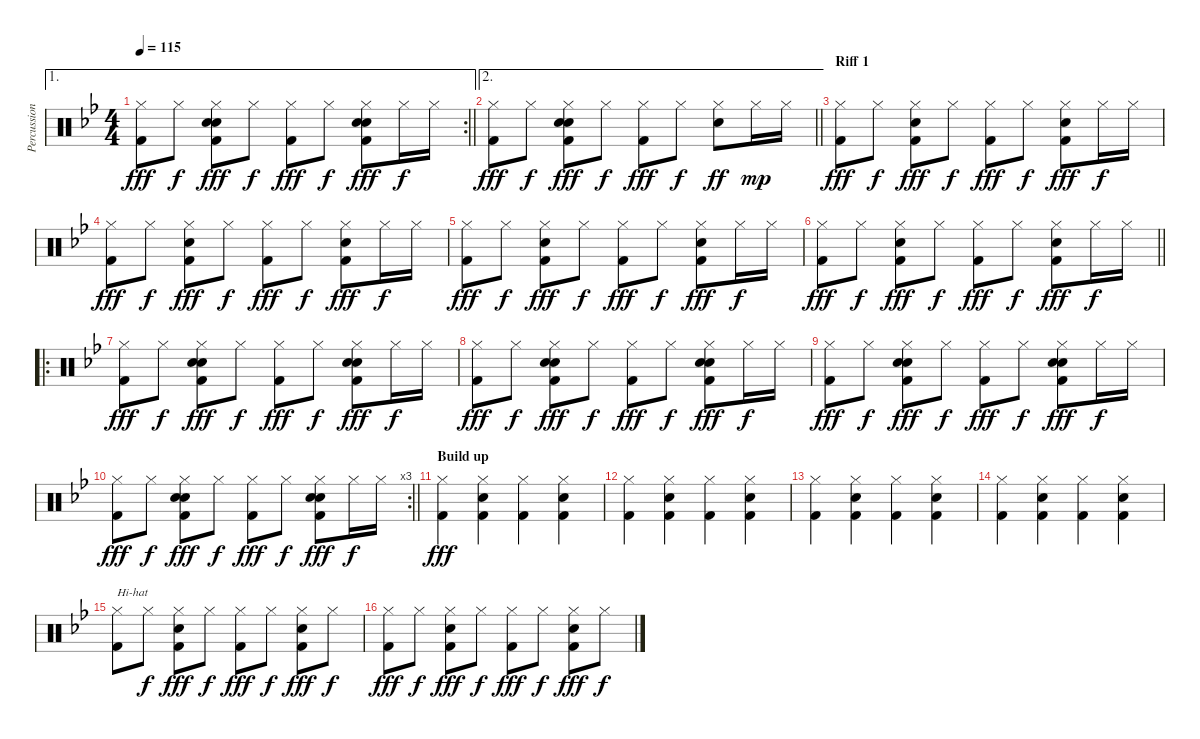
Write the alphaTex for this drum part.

\track ("Percussions" "Percussion") {instrument percussion}
\staff {score}
\articulation defaults
\ae 1
\rc 2
\ts (4 4)
\tempo 115
\clef neutral
\barLineRight lightlight
\ks gminor
("Hi-Hat (closed)" "Kick (hit) 2").8{dy fff} "Hi-Hat (closed)".8{dy f} ("Hi-Hat (closed)" "Hand Clap (hit)" "Electric Snare (hit)" "Kick (hit) 2").8{dy fff} "Hi-Hat (closed)".8{dy f} ("Hi-Hat (closed)" "Kick (hit) 2").8{dy fff} "Hi-Hat (closed)".8{dy f} ("Hi-Hat (closed)" "Hand Clap (hit)" "Electric Snare (hit)" "Kick (hit) 2").8{dy fff} "Hi-Hat (closed)".16{dy f} "Hi-Hat (closed)".16 |
\ae 2
\barLineRight lightlight
("Hi-Hat (closed)" "Kick (hit) 2").8{dy fff} "Hi-Hat (closed)".8{dy f} ("Hi-Hat (closed)" "Hand Clap (hit)" "Electric Snare (hit)" "Kick (hit) 2").8{dy fff} "Hi-Hat (closed)".8{dy f} ("Hi-Hat (closed)" "Kick (hit) 2").8{dy fff} "Hi-Hat (closed)".8{dy f} ("Hi-Hat (closed)" "Hand Clap (hit)").8{dy ff} "Hi-Hat (closed)".16{dy mp} "Hi-Hat (closed)".16 |
\section ("" "Riff 1")
("Hi-Hat (closed)" "Kick (hit) 2").8{dy fff} "Hi-Hat (closed)".8{dy f} ("Hi-Hat (closed)" "Hand Clap (hit)" "Kick (hit) 2").8{dy fff} "Hi-Hat (closed)".8{dy f} ("Hi-Hat (closed)" "Kick (hit) 2").8{dy fff} "Hi-Hat (closed)".8{dy f} ("Hi-Hat (closed)" "Hand Clap (hit)" "Kick (hit) 2").8{dy fff} "Hi-Hat (closed)".16{dy f} "Hi-Hat (closed)".16 |
("Hi-Hat (closed)" "Kick (hit) 2").8{dy fff} "Hi-Hat (closed)".8{dy f} ("Hi-Hat (closed)" "Hand Clap (hit)" "Kick (hit) 2").8{dy fff} "Hi-Hat (closed)".8{dy f} ("Hi-Hat (closed)" "Kick (hit) 2").8{dy fff} "Hi-Hat (closed)".8{dy f} ("Hi-Hat (closed)" "Hand Clap (hit)" "Kick (hit) 2").8{dy fff} "Hi-Hat (closed)".16{dy f} "Hi-Hat (closed)".16 |
("Hi-Hat (closed)" "Kick (hit) 2").8{dy fff} "Hi-Hat (closed)".8{dy f} ("Hi-Hat (closed)" "Hand Clap (hit)" "Kick (hit) 2").8{dy fff} "Hi-Hat (closed)".8{dy f} ("Hi-Hat (closed)" "Kick (hit) 2").8{dy fff} "Hi-Hat (closed)".8{dy f} ("Hi-Hat (closed)" "Hand Clap (hit)" "Kick (hit) 2").8{dy fff} "Hi-Hat (closed)".16{dy f} "Hi-Hat (closed)".16 |
\barLineRight lightlight
("Hi-Hat (closed)" "Kick (hit) 2").8{dy fff} "Hi-Hat (closed)".8{dy f} ("Hi-Hat (closed)" "Hand Clap (hit)" "Kick (hit) 2").8{dy fff} "Hi-Hat (closed)".8{dy f} ("Hi-Hat (closed)" "Kick (hit) 2").8{dy fff} "Hi-Hat (closed)".8{dy f} ("Hi-Hat (closed)" "Hand Clap (hit)" "Kick (hit) 2").8{dy fff} "Hi-Hat (closed)".16{dy f} "Hi-Hat (closed)".16 |
\ro
("Hi-Hat (closed)" "Kick (hit) 2").8{dy fff} "Hi-Hat (closed)".8{dy f} ("Hi-Hat (closed)" "Hand Clap (hit)" "Electric Snare (hit)" "Kick (hit) 2").8{dy fff} "Hi-Hat (closed)".8{dy f} ("Hi-Hat (closed)" "Kick (hit) 2").8{dy fff} "Hi-Hat (closed)".8{dy f} ("Hi-Hat (closed)" "Hand Clap (hit)" "Electric Snare (hit)" "Kick (hit) 2").8{dy fff} "Hi-Hat (closed)".16{dy f} "Hi-Hat (closed)".16 |
("Hi-Hat (closed)" "Kick (hit) 2").8{dy fff} "Hi-Hat (closed)".8{dy f} ("Hi-Hat (closed)" "Hand Clap (hit)" "Electric Snare (hit)" "Kick (hit) 2").8{dy fff} "Hi-Hat (closed)".8{dy f} ("Hi-Hat (closed)" "Kick (hit) 2").8{dy fff} "Hi-Hat (closed)".8{dy f} ("Hi-Hat (closed)" "Hand Clap (hit)" "Electric Snare (hit)" "Kick (hit) 2").8{dy fff} "Hi-Hat (closed)".16{dy f} "Hi-Hat (closed)".16 |
("Hi-Hat (closed)" "Kick (hit) 2").8{dy fff} "Hi-Hat (closed)".8{dy f} ("Hi-Hat (closed)" "Hand Clap (hit)" "Electric Snare (hit)" "Kick (hit) 2").8{dy fff} "Hi-Hat (closed)".8{dy f} ("Hi-Hat (closed)" "Kick (hit) 2").8{dy fff} "Hi-Hat (closed)".8{dy f} ("Hi-Hat (closed)" "Hand Clap (hit)" "Electric Snare (hit)" "Kick (hit) 2").8{dy fff} "Hi-Hat (closed)".16{dy f} "Hi-Hat (closed)".16 |
\rc 3
\barLineRight lightlight
("Hi-Hat (closed)" "Kick (hit) 2").8{dy fff} "Hi-Hat (closed)".8{dy f} ("Hi-Hat (closed)" "Hand Clap (hit)" "Electric Snare (hit)" "Kick (hit) 2").8{dy fff} "Hi-Hat (closed)".8{dy f} ("Hi-Hat (closed)" "Kick (hit) 2").8{dy fff} "Hi-Hat (closed)".8{dy f} ("Hi-Hat (closed)" "Hand Clap (hit)" "Electric Snare (hit)" "Kick (hit) 2").8{dy fff} "Hi-Hat (closed)".16{dy f} "Hi-Hat (closed)".16 |
\section ("" "Build up")
("Hi-Hat (closed)" "Kick (hit) 2").4{dy fff} ("Hi-Hat (closed)" "Hand Clap (hit)" "Kick (hit) 2").4 ("Hi-Hat (closed)" "Kick (hit) 2").4 ("Hi-Hat (closed)" "Hand Clap (hit)" "Kick (hit) 2").4 |
("Hi-Hat (closed)" "Kick (hit) 2").4 ("Hi-Hat (closed)" "Hand Clap (hit)" "Kick (hit) 2").4 ("Hi-Hat (closed)" "Kick (hit) 2").4 ("Hi-Hat (closed)" "Hand Clap (hit)" "Kick (hit) 2").4 |
("Hi-Hat (closed)" "Kick (hit) 2").4 ("Hi-Hat (closed)" "Hand Clap (hit)" "Kick (hit) 2").4 ("Hi-Hat (closed)" "Kick (hit) 2").4 ("Hi-Hat (closed)" "Hand Clap (hit)" "Kick (hit) 2").4 |
("Hi-Hat (closed)" "Kick (hit) 2").4 ("Hi-Hat (closed)" "Hand Clap (hit)" "Kick (hit) 2").4 ("Hi-Hat (closed)" "Kick (hit) 2").4 ("Hi-Hat (closed)" "Hand Clap (hit)" "Kick (hit) 2").4 |
("Hi-Hat (closed)" "Kick (hit) 2").8{txt "Hi-hat"} "Hi-Hat (closed)".8{dy f} ("Hi-Hat (closed)" "Hand Clap (hit)" "Kick (hit) 2").8{dy fff} "Hi-Hat (closed)".8{dy f} ("Hi-Hat (closed)" "Kick (hit) 2").8{dy fff} "Hi-Hat (closed)".8{dy f} ("Hi-Hat (closed)" "Hand Clap (hit)" "Kick (hit) 2").8{dy fff} "Hi-Hat (closed)".8{dy f} |
("Hi-Hat (closed)" "Kick (hit) 2").8{dy fff} "Hi-Hat (closed)".8{dy f} ("Hi-Hat (closed)" "Hand Clap (hit)" "Kick (hit) 2").8{dy fff} "Hi-Hat (closed)".8{dy f} ("Hi-Hat (closed)" "Kick (hit) 2").8{dy fff} "Hi-Hat (closed)".8{dy f} ("Hi-Hat (closed)" "Hand Clap (hit)" "Kick (hit) 2").8{dy fff} "Hi-Hat (closed)".8{dy f}
